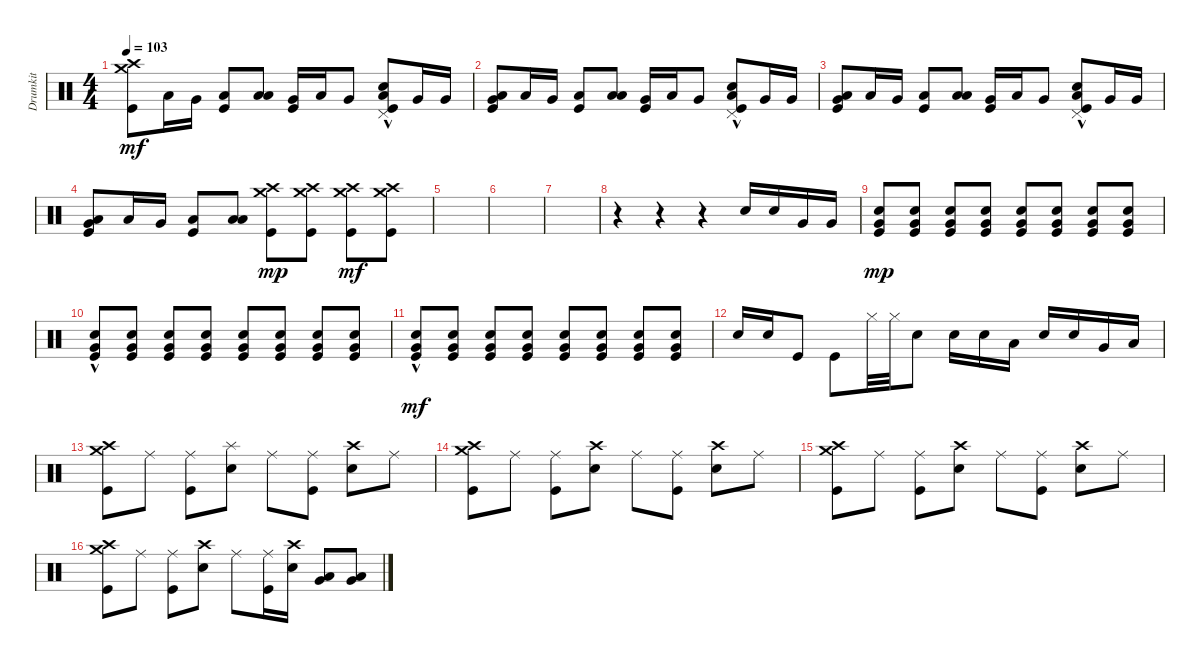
\track ("Drumkit" "Drumkit") {instrument percussion}
\staff {score}
\articulation defaults
\ts (4 4)
\tempo 103
\clef neutral
\ks c
("Kick (hit)" "Crash high (hit)" "Crash medium (hit)").8{dy mf} "Low Tom (hit)".16 "Very Low Tom (hit)".16 ("Low Floor Tom (hit)" "Kick (hit)").8 ("Low Floor Tom (hit)" "Low Tom (hit)").8 ("Kick (hit)" "Very Low Tom (hit)").16 "Low Tom (hit)".16 "Very Low Tom (hit)".8 ("Low Floor Tom (hit)" "Kick (hit)" "Snare (hit) 2"{hac} "Pedal Hi-Hat (hit)").8 "Very Low Tom (hit)".16 "Very Low Tom (hit)".16 |
("Kick (hit)" "Very Low Tom (hit)" "Low Tom (hit)").8 "Low Tom (hit)".16 "Very Low Tom (hit)".16 ("Low Floor Tom (hit)" "Kick (hit)").8 ("Low Floor Tom (hit)" "Low Tom (hit)").8 ("Kick (hit)" "Very Low Tom (hit)").16 "Low Tom (hit)".16 "Very Low Tom (hit)".8 ("Low Floor Tom (hit)" "Kick (hit)" "Snare (hit) 2"{hac} "Pedal Hi-Hat (hit)").8 "Very Low Tom (hit)".16 "Very Low Tom (hit)".16 |
("Kick (hit)" "Very Low Tom (hit)" "Low Tom (hit)").8 "Low Tom (hit)".16 "Very Low Tom (hit)".16 ("Low Floor Tom (hit)" "Kick (hit)").8 ("Low Floor Tom (hit)" "Low Tom (hit)").8 ("Kick (hit)" "Very Low Tom (hit)").16 "Low Tom (hit)".16 "Very Low Tom (hit)".8 ("Low Floor Tom (hit)" "Kick (hit)" "Snare (hit) 2"{hac} "Pedal Hi-Hat (hit)").8 "Very Low Tom (hit)".16 "Very Low Tom (hit)".16 |
("Kick (hit)" "Very Low Tom (hit)" "Low Tom (hit)").8 "Low Tom (hit)".16 "Very Low Tom (hit)".16 ("Low Floor Tom (hit)" "Kick (hit)").8 ("Low Floor Tom (hit)" "Low Tom (hit)").8 ("Crash high (hit)" "Crash medium (hit)" "Kick (hit)").8{dy mp} ("Crash high (hit)" "Crash medium (hit)" "Kick (hit)").8 ("Crash high (hit)" "Crash medium (hit)" "Kick (hit)").8{dy mf} ("Crash high (hit)" "Crash medium (hit)" "Kick (hit)").8 |
|
|
|
r.4 r.4 r.4 "Snare (hit) 2".16 "Snare (hit) 2".16 "Very Low Tom (hit)".16 "Very Low Tom (hit)".16 |
("Kick (hit)" "Very Low Tom (hit)" "Snare (hit) 2").8{dy mp} ("Kick (hit)" "Very Low Tom (hit)" "Snare (hit) 2").8 ("Kick (hit)" "Very Low Tom (hit)" "Snare (hit) 2").8 ("Kick (hit)" "Very Low Tom (hit)" "Snare (hit) 2").8 ("Kick (hit)" "Very Low Tom (hit)" "Snare (hit) 2").8 ("Kick (hit)" "Very Low Tom (hit)" "Snare (hit) 2").8 ("Kick (hit)" "Very Low Tom (hit)" "Snare (hit) 2").8 ("Kick (hit)" "Very Low Tom (hit)" "Snare (hit) 2").8 |
("Kick (hit)"{hac} "Very Low Tom (hit)"{hac} "Snare (hit) 2"{hac}).8 ("Kick (hit)" "Very Low Tom (hit)" "Snare (hit) 2").8 ("Kick (hit)" "Very Low Tom (hit)" "Snare (hit) 2").8 ("Kick (hit)" "Very Low Tom (hit)" "Snare (hit) 2").8 ("Kick (hit)" "Very Low Tom (hit)" "Snare (hit) 2").8 ("Kick (hit)" "Very Low Tom (hit)" "Snare (hit) 2").8 ("Kick (hit)" "Very Low Tom (hit)" "Snare (hit) 2").8 ("Kick (hit)" "Very Low Tom (hit)" "Snare (hit) 2").8 |
("Kick (hit)"{hac} "Very Low Tom (hit)"{hac} "Snare (hit) 2"{hac}).8{dy mf} ("Kick (hit)" "Very Low Tom (hit)" "Snare (hit) 2").8 ("Kick (hit)" "Very Low Tom (hit)" "Snare (hit) 2").8 ("Kick (hit)" "Very Low Tom (hit)" "Snare (hit) 2").8 ("Kick (hit)" "Very Low Tom (hit)" "Snare (hit) 2").8 ("Kick (hit)" "Very Low Tom (hit)" "Snare (hit) 2").8 ("Kick (hit)" "Very Low Tom (hit)" "Snare (hit) 2").8 ("Kick (hit)" "Very Low Tom (hit)" "Snare (hit) 2").8 |
"Snare (hit) 2".16 "Snare (hit) 2".16 "Kick (hit)".8 "Kick (hit)".8 "Hi-Hat (closed)".32 "Hi-Hat (closed)".32 "Snare (hit) 2".8 "Snare (hit) 2".16 "Snare (hit) 2".16 "Low Tom (hit)".16 "Snare (hit) 2".16 "Snare (hit) 2".16 "Very Low Tom (hit)".16 "Low Floor Tom (hit)".16 |
("Crash high (hit)" "Crash medium (hit)" "Kick (hit)").8 "Ride (middle)".8 ("Ride (middle)" "Kick (hit)").8 ("Snare (hit) 2" "Splash (hit)").8 "Ride (middle)".8 ("Ride (middle)" "Kick (hit)").8 ("Snare (hit) 2" "Crash high (hit)").8 "Ride (middle)".8 |
("Crash high (hit)" "Crash medium (hit)" "Kick (hit)").8 "Ride (middle)".8 ("Ride (middle)" "Kick (hit)").8 ("Snare (hit) 2" "Crash high (hit)").8 "Ride (middle)".8 ("Ride (middle)" "Kick (hit)").8 ("Snare (hit) 2" "Crash high (hit)").8 "Ride (middle)".8 |
("Crash high (hit)" "Crash medium (hit)" "Kick (hit)").8 "Ride (middle)".8 ("Ride (middle)" "Kick (hit)").8 ("Snare (hit) 2" "Crash high (hit)").8 "Ride (middle)".8 ("Ride (middle)" "Kick (hit)").8 ("Snare (hit) 2" "Crash high (hit)").8 "Ride (middle)".8 |
("Crash high (hit)" "Crash medium (hit)" "Kick (hit)").8 "Ride (middle)".8 ("Ride (middle)" "Kick (hit)").8 ("Snare (hit) 2" "Crash high (hit)").8 "Ride (middle)".8 ("Ride (middle)" "Kick (hit)").16 ("Snare (hit) 2" "Crash high (hit)").16 ("Low Tom (hit)" "Very Low Tom (hit)").8 ("Very Low Tom (hit)" "Low Floor Tom (hit)").8
